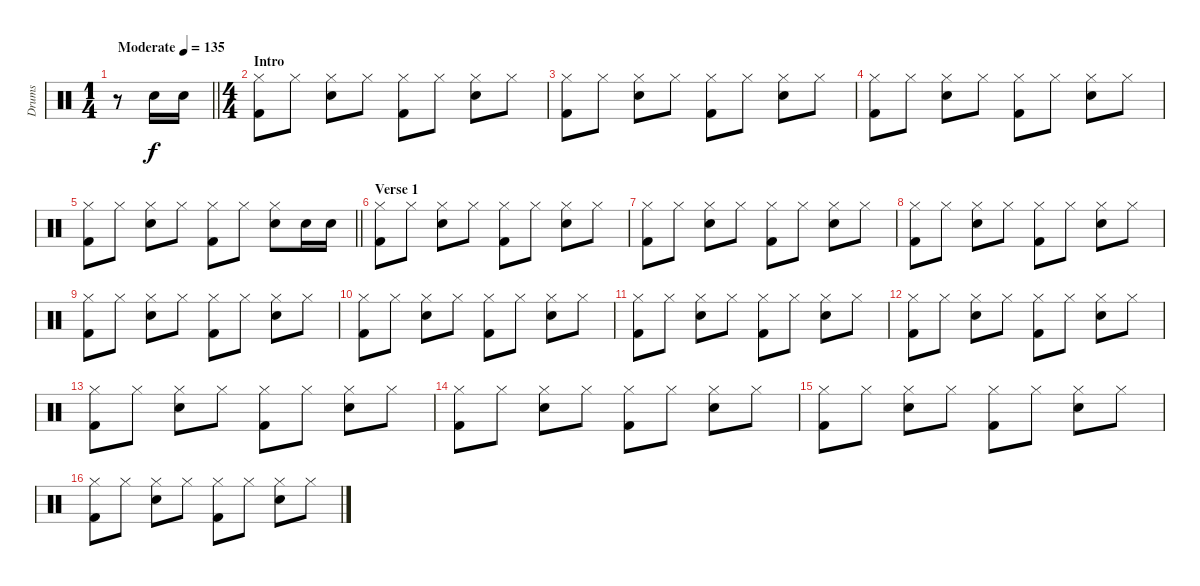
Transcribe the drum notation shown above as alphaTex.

\track ("Drums" "Drums") {instrument percussion}
\staff {score}
\articulation defaults
\ts (1 4)
\tempo (135 "Moderate")
\clef neutral
\barLineRight lightlight
\ks c
r.8{dy f} "Snare (hit) 2".16 "Snare (hit) 2".16 |
\ts (4 4)
\section ("" "Intro")
("Hi-Hat (closed)" "Kick (hit) 2").8 "Hi-Hat (closed)".8 ("Hi-Hat (closed)" "Snare (hit) 2").8 "Hi-Hat (closed)".8 ("Hi-Hat (closed)" "Kick (hit) 2").8 "Hi-Hat (closed)".8 ("Hi-Hat (closed)" "Snare (hit) 2").8 "Hi-Hat (closed)".8 |
("Hi-Hat (closed)" "Kick (hit) 2").8 "Hi-Hat (closed)".8 ("Hi-Hat (closed)" "Snare (hit) 2").8 "Hi-Hat (closed)".8 ("Hi-Hat (closed)" "Kick (hit) 2").8 "Hi-Hat (closed)".8 ("Hi-Hat (closed)" "Snare (hit) 2").8 "Hi-Hat (closed)".8 |
("Hi-Hat (closed)" "Kick (hit) 2").8 "Hi-Hat (closed)".8 ("Hi-Hat (closed)" "Snare (hit) 2").8 "Hi-Hat (closed)".8 ("Hi-Hat (closed)" "Kick (hit) 2").8 "Hi-Hat (closed)".8 ("Hi-Hat (closed)" "Snare (hit) 2").8 "Hi-Hat (closed)".8 |
\barLineRight lightlight
("Hi-Hat (closed)" "Kick (hit) 2").8 "Hi-Hat (closed)".8 ("Hi-Hat (closed)" "Snare (hit) 2").8 "Hi-Hat (closed)".8 ("Hi-Hat (closed)" "Kick (hit) 2").8 "Hi-Hat (closed)".8 ("Hi-Hat (closed)" "Snare (hit) 2").8 "Snare (hit) 2".16 "Snare (hit) 2".16 |
\section ("" "Verse 1")
("Hi-Hat (closed)" "Kick (hit) 2").8 "Hi-Hat (closed)".8 ("Hi-Hat (closed)" "Snare (hit) 2").8 "Hi-Hat (closed)".8 ("Hi-Hat (closed)" "Kick (hit) 2").8 "Hi-Hat (closed)".8 ("Hi-Hat (closed)" "Snare (hit) 2").8 "Hi-Hat (closed)".8 |
("Hi-Hat (closed)" "Kick (hit) 2").8 "Hi-Hat (closed)".8 ("Hi-Hat (closed)" "Snare (hit) 2").8 "Hi-Hat (closed)".8 ("Hi-Hat (closed)" "Kick (hit) 2").8 "Hi-Hat (closed)".8 ("Hi-Hat (closed)" "Snare (hit) 2").8 "Hi-Hat (closed)".8 |
("Hi-Hat (closed)" "Kick (hit) 2").8 "Hi-Hat (closed)".8 ("Hi-Hat (closed)" "Snare (hit) 2").8 "Hi-Hat (closed)".8 ("Hi-Hat (closed)" "Kick (hit) 2").8 "Hi-Hat (closed)".8 ("Hi-Hat (closed)" "Snare (hit) 2").8 "Hi-Hat (closed)".8 |
("Hi-Hat (closed)" "Kick (hit) 2").8 "Hi-Hat (closed)".8 ("Hi-Hat (closed)" "Snare (hit) 2").8 "Hi-Hat (closed)".8 ("Hi-Hat (closed)" "Kick (hit) 2").8 "Hi-Hat (closed)".8 ("Hi-Hat (closed)" "Snare (hit) 2").8 "Hi-Hat (closed)".8 |
("Hi-Hat (closed)" "Kick (hit) 2").8 "Hi-Hat (closed)".8 ("Hi-Hat (closed)" "Snare (hit) 2").8 "Hi-Hat (closed)".8 ("Hi-Hat (closed)" "Kick (hit) 2").8 "Hi-Hat (closed)".8 ("Hi-Hat (closed)" "Snare (hit) 2").8 "Hi-Hat (closed)".8 |
("Hi-Hat (closed)" "Kick (hit) 2").8 "Hi-Hat (closed)".8 ("Hi-Hat (closed)" "Snare (hit) 2").8 "Hi-Hat (closed)".8 ("Hi-Hat (closed)" "Kick (hit) 2").8 "Hi-Hat (closed)".8 ("Hi-Hat (closed)" "Snare (hit) 2").8 "Hi-Hat (closed)".8 |
("Hi-Hat (closed)" "Kick (hit) 2").8 "Hi-Hat (closed)".8 ("Hi-Hat (closed)" "Snare (hit) 2").8 "Hi-Hat (closed)".8 ("Hi-Hat (closed)" "Kick (hit) 2").8 "Hi-Hat (closed)".8 ("Hi-Hat (closed)" "Snare (hit) 2").8 "Hi-Hat (closed)".8 |
("Hi-Hat (closed)" "Kick (hit) 2").8 "Hi-Hat (closed)".8 ("Hi-Hat (closed)" "Snare (hit) 2").8 "Hi-Hat (closed)".8 ("Hi-Hat (closed)" "Kick (hit) 2").8 "Hi-Hat (closed)".8 ("Hi-Hat (closed)" "Snare (hit) 2").8 "Hi-Hat (closed)".8 |
("Hi-Hat (closed)" "Kick (hit) 2").8 "Hi-Hat (closed)".8 ("Hi-Hat (closed)" "Snare (hit) 2").8 "Hi-Hat (closed)".8 ("Hi-Hat (closed)" "Kick (hit) 2").8 "Hi-Hat (closed)".8 ("Hi-Hat (closed)" "Snare (hit) 2").8 "Hi-Hat (closed)".8 |
("Hi-Hat (closed)" "Kick (hit) 2").8 "Hi-Hat (closed)".8 ("Hi-Hat (closed)" "Snare (hit) 2").8 "Hi-Hat (closed)".8 ("Hi-Hat (closed)" "Kick (hit) 2").8 "Hi-Hat (closed)".8 ("Hi-Hat (closed)" "Snare (hit) 2").8 "Hi-Hat (closed)".8 |
("Hi-Hat (closed)" "Kick (hit) 2").8 "Hi-Hat (closed)".8 ("Hi-Hat (closed)" "Snare (hit) 2").8 "Hi-Hat (closed)".8 ("Hi-Hat (closed)" "Kick (hit) 2").8 "Hi-Hat (closed)".8 ("Hi-Hat (closed)" "Snare (hit) 2").8 "Hi-Hat (closed)".8
